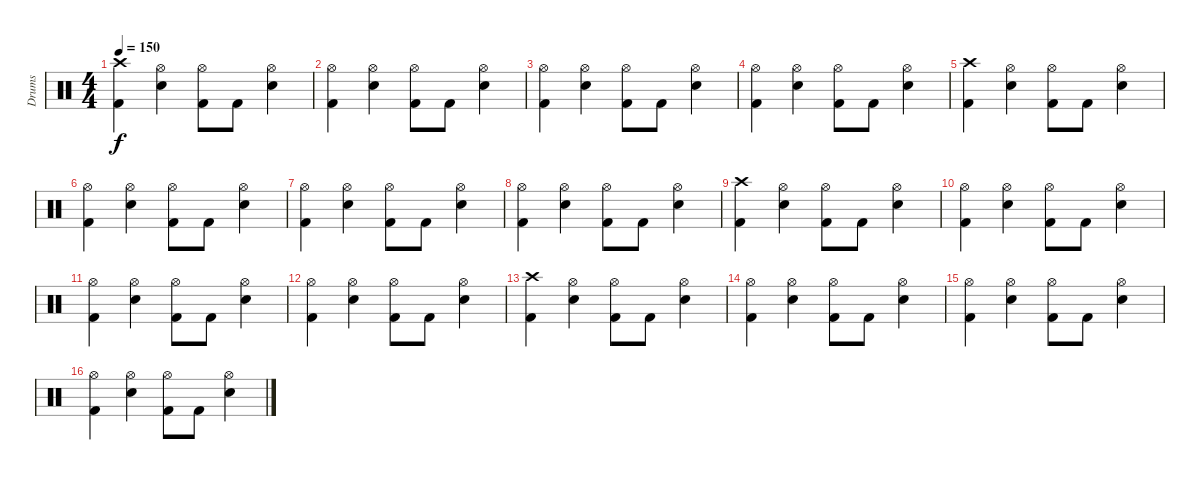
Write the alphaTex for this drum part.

\track ("Drums" "Drums") {instrument percussion}
\staff {score}
\articulation defaults
\ts (4 4)
\tempo 150
\clef neutral
\ks c
("Crash high (hit)" "Kick (hit) 2").4{dy f} ("Hi-Hat (open)" "Electric Snare (hit)").4 ("Hi-Hat (open)" "Kick (hit) 2").8 "Kick (hit) 2".8 ("Hi-Hat (open)" "Electric Snare (hit)").4 |
("Hi-Hat (open)" "Kick (hit) 2").4 ("Hi-Hat (open)" "Electric Snare (hit)").4 ("Hi-Hat (open)" "Kick (hit) 2").8 "Kick (hit) 2".8 ("Hi-Hat (open)" "Electric Snare (hit)").4 |
("Hi-Hat (open)" "Kick (hit) 2").4 ("Hi-Hat (open)" "Electric Snare (hit)").4 ("Hi-Hat (open)" "Kick (hit) 2").8 "Kick (hit) 2".8 ("Hi-Hat (open)" "Electric Snare (hit)").4 |
("Hi-Hat (open)" "Kick (hit) 2").4 ("Hi-Hat (open)" "Electric Snare (hit)").4 ("Hi-Hat (open)" "Kick (hit) 2").8 "Kick (hit) 2".8 ("Hi-Hat (open)" "Electric Snare (hit)").4 |
("Crash high (hit)" "Kick (hit) 2").4 ("Hi-Hat (open)" "Electric Snare (hit)").4 ("Hi-Hat (open)" "Kick (hit) 2").8 "Kick (hit) 2".8 ("Hi-Hat (open)" "Electric Snare (hit)").4 |
("Hi-Hat (open)" "Kick (hit) 2").4 ("Hi-Hat (open)" "Electric Snare (hit)").4 ("Hi-Hat (open)" "Kick (hit) 2").8 "Kick (hit) 2".8 ("Hi-Hat (open)" "Electric Snare (hit)").4 |
("Hi-Hat (open)" "Kick (hit) 2").4 ("Hi-Hat (open)" "Electric Snare (hit)").4 ("Hi-Hat (open)" "Kick (hit) 2").8 "Kick (hit) 2".8 ("Hi-Hat (open)" "Electric Snare (hit)").4 |
("Hi-Hat (open)" "Kick (hit) 2").4 ("Hi-Hat (open)" "Electric Snare (hit)").4 ("Hi-Hat (open)" "Kick (hit) 2").8 "Kick (hit) 2".8 ("Hi-Hat (open)" "Electric Snare (hit)").4 |
("Crash high (hit)" "Kick (hit) 2").4 ("Hi-Hat (open)" "Electric Snare (hit)").4 ("Hi-Hat (open)" "Kick (hit) 2").8 "Kick (hit) 2".8 ("Hi-Hat (open)" "Electric Snare (hit)").4 |
("Hi-Hat (open)" "Kick (hit) 2").4 ("Hi-Hat (open)" "Electric Snare (hit)").4 ("Hi-Hat (open)" "Kick (hit) 2").8 "Kick (hit) 2".8 ("Hi-Hat (open)" "Electric Snare (hit)").4 |
("Hi-Hat (open)" "Kick (hit) 2").4 ("Hi-Hat (open)" "Electric Snare (hit)").4 ("Hi-Hat (open)" "Kick (hit) 2").8 "Kick (hit) 2".8 ("Hi-Hat (open)" "Electric Snare (hit)").4 |
("Hi-Hat (open)" "Kick (hit) 2").4 ("Hi-Hat (open)" "Electric Snare (hit)").4 ("Hi-Hat (open)" "Kick (hit) 2").8 "Kick (hit) 2".8 ("Hi-Hat (open)" "Electric Snare (hit)").4 |
("Crash high (hit)" "Kick (hit) 2").4 ("Hi-Hat (open)" "Electric Snare (hit)").4 ("Hi-Hat (open)" "Kick (hit) 2").8 "Kick (hit) 2".8 ("Hi-Hat (open)" "Electric Snare (hit)").4 |
("Hi-Hat (open)" "Kick (hit) 2").4 ("Hi-Hat (open)" "Electric Snare (hit)").4 ("Hi-Hat (open)" "Kick (hit) 2").8 "Kick (hit) 2".8 ("Hi-Hat (open)" "Electric Snare (hit)").4 |
("Hi-Hat (open)" "Kick (hit) 2").4 ("Hi-Hat (open)" "Electric Snare (hit)").4 ("Hi-Hat (open)" "Kick (hit) 2").8 "Kick (hit) 2".8 ("Hi-Hat (open)" "Electric Snare (hit)").4 |
("Hi-Hat (open)" "Kick (hit) 2").4 ("Hi-Hat (open)" "Electric Snare (hit)").4 ("Hi-Hat (open)" "Kick (hit) 2").8 "Kick (hit) 2".8 ("Hi-Hat (open)" "Electric Snare (hit)").4
